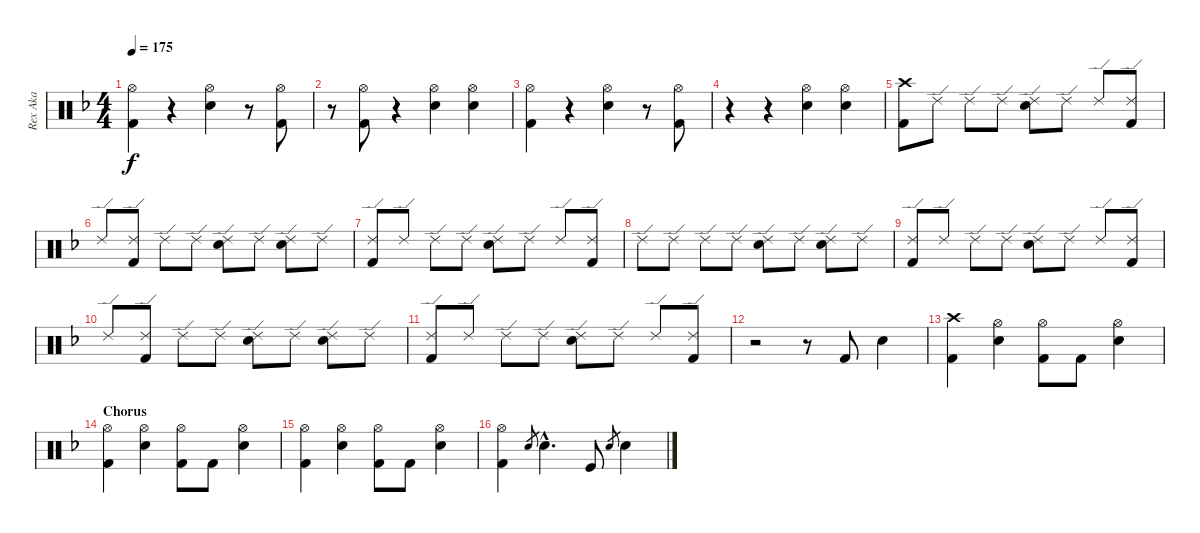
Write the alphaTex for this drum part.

\track ("Rex Aka" "Rex Aka") {instrument percussion}
\staff {score}
\articulation defaults
\ts (4 4)
\tempo 175
\clef neutral
\ks f
("Hi-Hat (open)" "Kick (hit) 2").4{dy f} r.4 ("Hi-Hat (open)" "Electric Snare (hit)").4 r.8 ("Hi-Hat (open)" "Kick (hit) 2").8 |
r.8 ("Hi-Hat (open)" "Kick (hit) 2").8 r.4 ("Hi-Hat (open)" "Electric Snare (hit)").4 ("Hi-Hat (open)" "Electric Snare (hit)").4 |
("Hi-Hat (open)" "Kick (hit) 2").4 r.4 ("Hi-Hat (open)" "Electric Snare (hit)").4 r.8 ("Hi-Hat (open)" "Kick (hit) 2").8 |
r.4 r.4 ("Hi-Hat (open)" "Electric Snare (hit)").4 ("Hi-Hat (open)" "Electric Snare (hit)").4 |
("Crash high (hit)" "Kick (hit) 2").8 "Ride (edge) 2".8 "Ride (edge) 2".8 "Ride (edge) 2".8 ("Ride (edge) 2" "Electric Snare (hit)").8 "Ride (edge) 2".8 "Ride (edge) 2".8 ("Ride (edge) 2" "Kick (hit) 2").8 |
"Ride (edge) 2".8 ("Ride (edge) 2" "Kick (hit) 2").8 "Ride (edge) 2".8 "Ride (edge) 2".8 ("Ride (edge) 2" "Electric Snare (hit)").8 "Ride (edge) 2".8 ("Ride (edge) 2" "Electric Snare (hit)").8 "Ride (edge) 2".8 |
("Ride (edge) 2" "Kick (hit) 2").8 "Ride (edge) 2".8 "Ride (edge) 2".8 "Ride (edge) 2".8 ("Ride (edge) 2" "Electric Snare (hit)").8 "Ride (edge) 2".8 "Ride (edge) 2".8 ("Ride (edge) 2" "Kick (hit) 2").8 |
"Ride (edge) 2".8 "Ride (edge) 2".8 "Ride (edge) 2".8 "Ride (edge) 2".8 ("Ride (edge) 2" "Electric Snare (hit)").8 "Ride (edge) 2".8 ("Ride (edge) 2" "Electric Snare (hit)").8 "Ride (edge) 2".8 |
("Ride (edge) 2" "Kick (hit) 2").8 "Ride (edge) 2".8 "Ride (edge) 2".8 "Ride (edge) 2".8 ("Ride (edge) 2" "Electric Snare (hit)").8 "Ride (edge) 2".8 "Ride (edge) 2".8 ("Ride (edge) 2" "Kick (hit) 2").8 |
"Ride (edge) 2".8 ("Ride (edge) 2" "Kick (hit) 2").8 "Ride (edge) 2".8 "Ride (edge) 2".8 ("Ride (edge) 2" "Electric Snare (hit)").8 "Ride (edge) 2".8 ("Ride (edge) 2" "Electric Snare (hit)").8 "Ride (edge) 2".8 |
("Ride (edge) 2" "Kick (hit) 2").8 "Ride (edge) 2".8 "Ride (edge) 2".8 "Ride (edge) 2".8 ("Ride (edge) 2" "Electric Snare (hit)").8 "Ride (edge) 2".8 "Ride (edge) 2".8 ("Ride (edge) 2" "Kick (hit) 2").8 |
r.2 r.8 "Kick (hit) 2".8 "Electric Snare (hit)".4 |
("Crash high (hit)" "Kick (hit) 2").4 ("Hi-Hat (open)" "Electric Snare (hit)").4 ("Hi-Hat (open)" "Kick (hit) 2").8 "Kick (hit) 2".8 ("Hi-Hat (open)" "Electric Snare (hit)").4 |
\section ("" "Chorus")
("Hi-Hat (open)" "Kick (hit) 2").4 ("Hi-Hat (open)" "Electric Snare (hit)").4 ("Hi-Hat (open)" "Kick (hit) 2").8 "Kick (hit) 2".8 ("Hi-Hat (open)" "Electric Snare (hit)").4 |
("Hi-Hat (open)" "Kick (hit) 2").4 ("Hi-Hat (open)" "Electric Snare (hit)").4 ("Hi-Hat (open)" "Kick (hit) 2").8 "Kick (hit) 2".8 ("Hi-Hat (open)" "Electric Snare (hit)").4 |
("Hi-Hat (open)" "Kick (hit) 2").4 "Electric Snare (hit)".8{gr} "Electric Snare (hit)"{hac}.4{d} "Kick (hit)".8 "Electric Snare (hit)".8{gr} "Electric Snare (hit)".4
